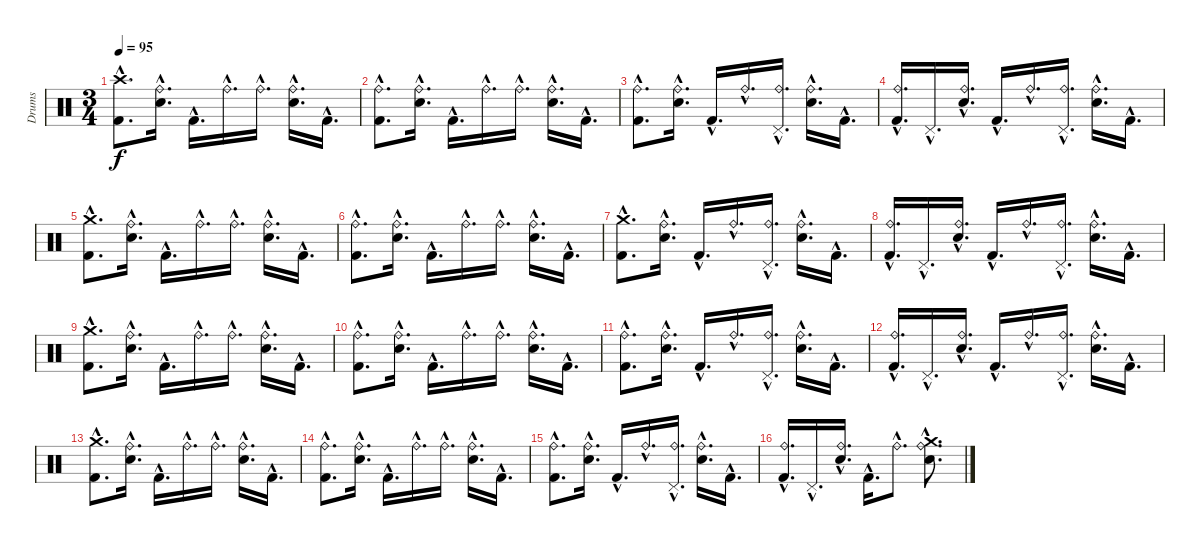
\track ("Drums" "Drums") {instrument percussion}
\staff {score}
\articulation defaults
\ts (3 4)
\tempo 95
\clef neutral
\ks c
("Kick (hit) 2"{hac} "Crash high (hit)"{hac}).8{d dy f} ("Electric Snare (hit)"{hac} "Ride (bell)"{hac}).16{d} "Kick (hit) 2"{hac}.16{d} "Ride (bell)"{hac}.16{d} "Ride (bell)"{hac}.16{d} ("Electric Snare (hit)"{hac} "Ride (bell)"{hac}).16{d} "Kick (hit) 2"{hac}.16{d} |
("Kick (hit) 2"{hac} "Ride (bell)"{hac}).8{d} ("Electric Snare (hit)"{hac} "Ride (bell)"{hac}).16{d} "Kick (hit) 2"{hac}.16{d} "Ride (bell)"{hac}.16{d} "Ride (bell)"{hac}.16{d} ("Electric Snare (hit)"{hac} "Ride (bell)"{hac}).16{d} "Kick (hit) 2"{hac}.16{d} |
("Kick (hit) 2"{hac} "Ride (bell)"{hac}).8{d} ("Electric Snare (hit)"{hac} "Ride (bell)"{hac}).16{d} "Kick (hit) 2"{hac}.16{d} "Ride (bell)"{hac}.16{d} ("Ride (bell)"{hac} "Pedal Hi-Hat (hit)"{hac}).16{d} ("Electric Snare (hit)"{hac} "Ride (bell)"{hac}).16{d} "Kick (hit) 2"{hac}.16{d} |
("Kick (hit) 2"{hac} "Ride (bell)"{hac}).16{d} "Pedal Hi-Hat (hit)"{hac}.16{d} ("Electric Snare (hit)"{hac} "Ride (bell)"{hac}).16{d} "Kick (hit) 2"{hac}.16{d} "Ride (bell)"{hac}.16{d} ("Ride (bell)"{hac} "Pedal Hi-Hat (hit)"{hac}).16{d} ("Electric Snare (hit)"{hac} "Ride (bell)"{hac}).16{d} "Kick (hit) 2"{hac}.16{d} |
("Kick (hit) 2"{hac} "Crash medium (hit)"{hac}).8{d} ("Electric Snare (hit)"{hac} "Ride (bell)"{hac}).16{d} "Kick (hit) 2"{hac}.16{d} "Ride (bell)"{hac}.16{d} "Ride (bell)"{hac}.16{d} ("Electric Snare (hit)"{hac} "Ride (bell)"{hac}).16{d} "Kick (hit) 2"{hac}.16{d} |
("Kick (hit) 2"{hac} "Ride (bell)"{hac}).8{d} ("Electric Snare (hit)"{hac} "Ride (bell)"{hac}).16{d} "Kick (hit) 2"{hac}.16{d} "Ride (bell)"{hac}.16{d} "Ride (bell)"{hac}.16{d} ("Electric Snare (hit)"{hac} "Ride (bell)"{hac}).16{d} "Kick (hit) 2"{hac}.16{d} |
("Kick (hit) 2"{hac} "Crash medium (hit)"{hac}).8{d} ("Electric Snare (hit)"{hac} "Ride (bell)"{hac}).16{d} "Kick (hit) 2"{hac}.16{d} "Ride (bell)"{hac}.16{d} ("Ride (bell)"{hac} "Pedal Hi-Hat (hit)"{hac}).16{d} ("Electric Snare (hit)"{hac} "Ride (bell)"{hac}).16{d} "Kick (hit) 2"{hac}.16{d} |
("Kick (hit) 2"{hac} "Ride (bell)"{hac}).16{d} "Pedal Hi-Hat (hit)"{hac}.16{d} ("Electric Snare (hit)"{hac} "Ride (bell)"{hac}).16{d} "Kick (hit) 2"{hac}.16{d} "Ride (bell)"{hac}.16{d} ("Ride (bell)"{hac} "Pedal Hi-Hat (hit)"{hac}).16{d} ("Electric Snare (hit)"{hac} "Ride (bell)"{hac}).16{d} "Kick (hit) 2"{hac}.16{d} |
("Kick (hit) 2"{hac} "Crash medium (hit)"{hac}).8{d} ("Electric Snare (hit)"{hac} "Ride (bell)"{hac}).16{d} "Kick (hit) 2"{hac}.16{d} "Ride (bell)"{hac}.16{d} "Ride (bell)"{hac}.16{d} ("Electric Snare (hit)"{hac} "Ride (bell)"{hac}).16{d} "Kick (hit) 2"{hac}.16{d} |
("Kick (hit) 2"{hac} "Ride (bell)"{hac}).8{d} ("Electric Snare (hit)"{hac} "Ride (bell)"{hac}).16{d} "Kick (hit) 2"{hac}.16{d} "Ride (bell)"{hac}.16{d} "Ride (bell)"{hac}.16{d} ("Electric Snare (hit)"{hac} "Ride (bell)"{hac}).16{d} "Kick (hit) 2"{hac}.16{d} |
("Kick (hit) 2"{hac} "Ride (bell)"{hac}).8{d} ("Electric Snare (hit)"{hac} "Ride (bell)"{hac}).16{d} "Kick (hit) 2"{hac}.16{d} "Ride (bell)"{hac}.16{d} ("Ride (bell)"{hac} "Pedal Hi-Hat (hit)"{hac}).16{d} ("Electric Snare (hit)"{hac} "Ride (bell)"{hac}).16{d} "Kick (hit) 2"{hac}.16{d} |
("Kick (hit) 2"{hac} "Ride (bell)"{hac}).16{d} "Pedal Hi-Hat (hit)"{hac}.16{d} ("Electric Snare (hit)"{hac} "Ride (bell)"{hac}).16{d} "Kick (hit) 2"{hac}.16{d} "Ride (bell)"{hac}.16{d} ("Ride (bell)"{hac} "Pedal Hi-Hat (hit)"{hac}).16{d} ("Electric Snare (hit)"{hac} "Ride (bell)"{hac}).16{d} "Kick (hit) 2"{hac}.16{d} |
("Kick (hit) 2"{hac} "Crash medium (hit)"{hac}).8{d} ("Electric Snare (hit)"{hac} "Ride (bell)"{hac}).16{d} "Kick (hit) 2"{hac}.16{d} "Ride (bell)"{hac}.16{d} "Ride (bell)"{hac}.16{d} ("Electric Snare (hit)"{hac} "Ride (bell)"{hac}).16{d} "Kick (hit) 2"{hac}.16{d} |
("Kick (hit) 2"{hac} "Ride (bell)"{hac}).8{d} ("Electric Snare (hit)"{hac} "Ride (bell)"{hac}).16{d} "Kick (hit) 2"{hac}.16{d} "Ride (bell)"{hac}.16{d} "Ride (bell)"{hac}.16{d} ("Electric Snare (hit)"{hac} "Ride (bell)"{hac}).16{d} "Kick (hit) 2"{hac}.16{d} |
("Kick (hit) 2"{hac} "Ride (bell)"{hac}).8{d} ("Electric Snare (hit)"{hac} "Ride (bell)"{hac}).16{d} "Kick (hit) 2"{hac}.16{d} "Ride (bell)"{hac}.16{d} ("Ride (bell)"{hac} "Pedal Hi-Hat (hit)"{hac}).16{d} ("Electric Snare (hit)"{hac} "Ride (bell)"{hac}).16{d} "Kick (hit) 2"{hac}.16{d} |
("Kick (hit) 2"{hac} "Ride (bell)"{hac}).16{d} "Pedal Hi-Hat (hit)"{hac}.16{d} ("Electric Snare (hit)"{hac} "Ride (bell)"{hac}).16{d} "Kick (hit) 2"{hac}.16{d} "Ride (bell)"{hac}.8{d} ("Electric Snare (hit)"{hac} "Ride (bell)"{hac} "Crash medium (hit)"{hac}).8{d}
